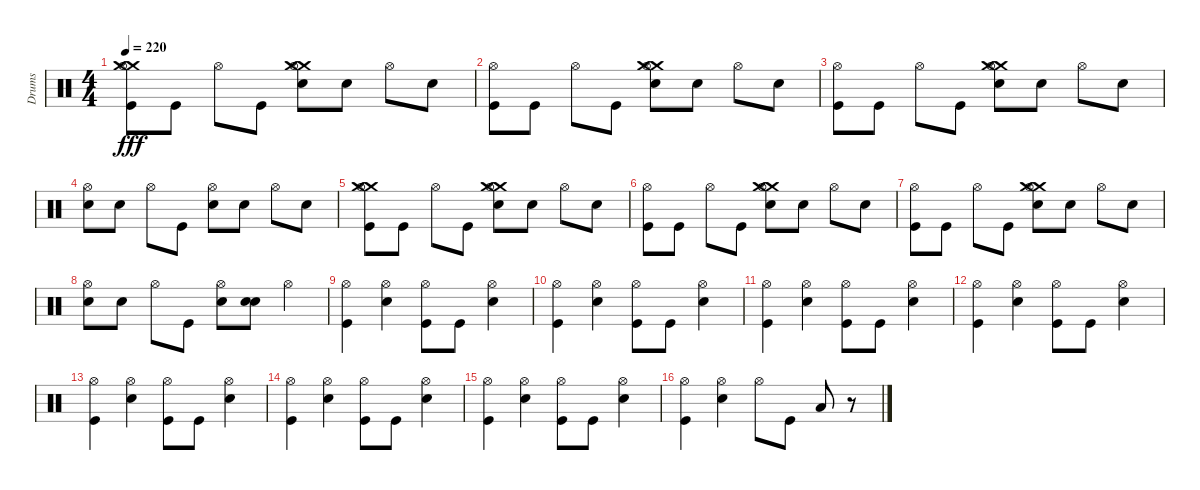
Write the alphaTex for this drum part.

\track ("Drums" "Drums") {instrument percussion}
\staff {score}
\articulation defaults
\ts (4 4)
\tempo 220
\clef neutral
\ks c
("Crash medium (hit)" "Crash medium (hit)" "Kick (hit)" "Hi-Hat (open)").8{dy fff} "Kick (hit)".8 "Hi-Hat (open)".8 "Kick (hit)".8 ("Crash medium (hit)" "Crash medium (hit)" "Snare (hit) 2" "Hi-Hat (open)").8 "Snare (hit) 2".8 "Hi-Hat (open)".8 "Snare (hit) 2".8 |
("Kick (hit)" "Hi-Hat (open)").8 "Kick (hit)".8 "Hi-Hat (open)".8 "Kick (hit)".8 ("Crash medium (hit)" "Crash medium (hit)" "Snare (hit) 2" "Hi-Hat (open)").8 "Snare (hit) 2".8 "Hi-Hat (open)".8 "Snare (hit) 2".8 |
("Kick (hit)" "Hi-Hat (open)").8 "Kick (hit)".8 "Hi-Hat (open)".8 "Kick (hit)".8 ("Crash medium (hit)" "Crash medium (hit)" "Snare (hit) 2" "Hi-Hat (open)").8 "Snare (hit) 2".8 "Hi-Hat (open)".8 "Snare (hit) 2".8 |
("Snare (hit) 2" "Hi-Hat (open)").8 "Snare (hit) 2".8 "Hi-Hat (open)".8 "Kick (hit)".8 ("Snare (hit) 2" "Hi-Hat (open)").8 "Snare (hit) 2".8 "Hi-Hat (open)".8 "Snare (hit) 2".8 |
("Crash medium (hit)" "Crash medium (hit)" "Kick (hit)" "Hi-Hat (open)").8 "Kick (hit)".8 "Hi-Hat (open)".8 "Kick (hit)".8 ("Crash medium (hit)" "Crash medium (hit)" "Snare (hit) 2" "Hi-Hat (open)").8 "Snare (hit) 2".8 "Hi-Hat (open)".8 "Snare (hit) 2".8 |
("Kick (hit)" "Hi-Hat (open)").8 "Kick (hit)".8 "Hi-Hat (open)".8 "Kick (hit)".8 ("Crash medium (hit)" "Crash medium (hit)" "Snare (hit) 2" "Hi-Hat (open)").8 "Snare (hit) 2".8 "Hi-Hat (open)".8 "Snare (hit) 2".8 |
("Kick (hit)" "Hi-Hat (open)").8 "Kick (hit)".8 "Hi-Hat (open)".8 "Kick (hit)".8 ("Crash medium (hit)" "Crash medium (hit)" "Snare (hit) 2" "Hi-Hat (open)").8 "Snare (hit) 2".8 "Hi-Hat (open)".8 "Snare (hit) 2".8 |
("Snare (hit) 2" "Hi-Hat (open)").8 "Snare (hit) 2".8 "Hi-Hat (open)".8 "Kick (hit)".8 ("Snare (hit) 2" "Hi-Hat (open)").8 ("Snare (hit) 2" "Snare (hit) 2").8 "Hi-Hat (open)".4 |
("Kick (hit)" "Hi-Hat (open)").4 ("Hi-Hat (open)" "Snare (hit) 2").4 ("Hi-Hat (open)" "Kick (hit)").8 "Kick (hit)".8 ("Hi-Hat (open)" "Snare (hit) 2").4 |
("Hi-Hat (open)" "Kick (hit)").4 ("Snare (hit) 2" "Hi-Hat (open)").4 ("Kick (hit)" "Hi-Hat (open)").8 "Kick (hit)".8 ("Snare (hit) 2" "Hi-Hat (open)").4 |
("Hi-Hat (open)" "Kick (hit)").4 ("Hi-Hat (open)" "Snare (hit) 2").4 ("Kick (hit)" "Hi-Hat (open)").8 "Kick (hit)".8 ("Hi-Hat (open)" "Snare (hit) 2").4 |
("Kick (hit)" "Hi-Hat (open)").4 ("Snare (hit) 2" "Hi-Hat (open)").4 ("Kick (hit)" "Hi-Hat (open)").8 "Kick (hit)".8 ("Snare (hit) 2" "Hi-Hat (open)").4 |
("Hi-Hat (open)" "Kick (hit)").4 ("Hi-Hat (open)" "Snare (hit) 2").4 ("Hi-Hat (open)" "Kick (hit)").8 "Kick (hit)".8 ("Hi-Hat (open)" "Snare (hit) 2").4 |
("Hi-Hat (open)" "Kick (hit)").4 ("Hi-Hat (open)" "Snare (hit) 2").4 ("Hi-Hat (open)" "Kick (hit)").8 "Kick (hit)".8 ("Hi-Hat (open)" "Snare (hit) 2").4 |
("Hi-Hat (open)" "Kick (hit)").4 ("Hi-Hat (open)" "Snare (hit) 2").4 ("Hi-Hat (open)" "Kick (hit)").8 "Kick (hit)".8 ("Hi-Hat (open)" "Snare (hit) 2").4 |
("Hi-Hat (open)" "Kick (hit)").4 ("Hi-Hat (open)" "Snare (hit) 2").4 "Hi-Hat (open)".8 "Kick (hit)".8 "Low Floor Tom (hit)".8 r.8
